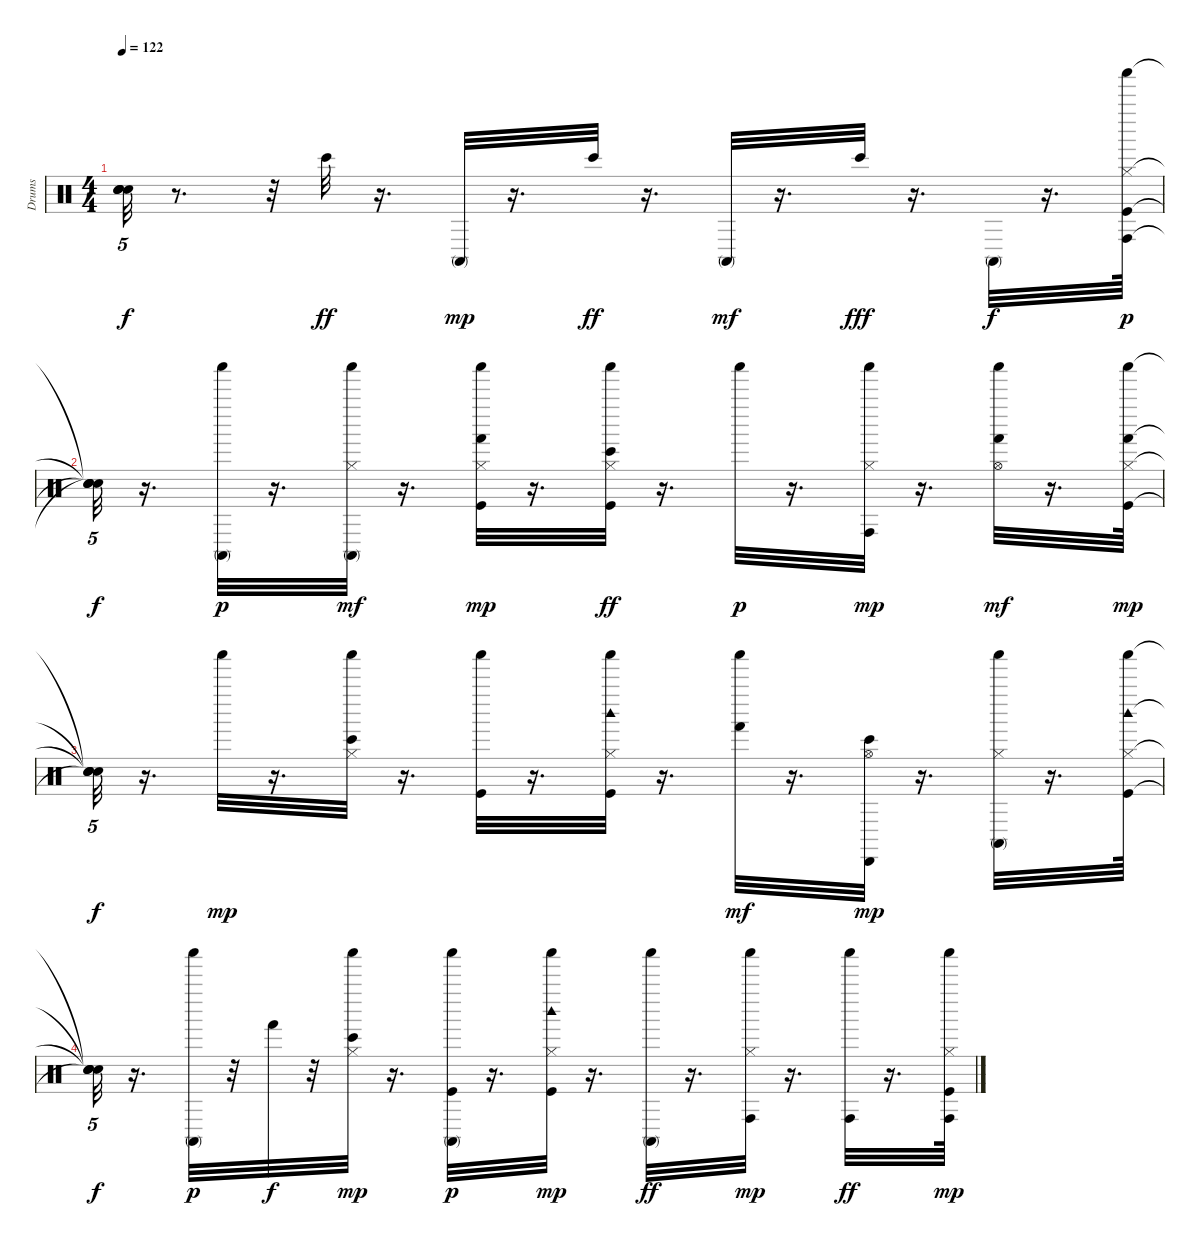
\track ("Drums" "Drums") {instrument percussion}
\staff {score}
\articulation defaults
\ts (4 4)
\tempo 122
\clef neutral
\ks c
("Snare (hit)"{t} "Snare (hit)"{t} "Snare (hit)"{t} "Snare (hit)"{t}).32{tu (5 4) dy f} r.8{d} r.32 "Bongo High (hit)".32{dy ff} r.16{d} "Conga high (mute)".32{dy mp} r.16{d} "Bongo High (hit)".32{dy ff} r.16{d} "Conga high (mute)".32{dy mf} r.16{d} "Bongo High (hit)".32{dy fff} r.16{d} "Conga high (mute)".32{dy f} r.16{d} ("Kick (hit)" "Hi-Hat (closed)" "Conga high (hit)" "Shaker (hit)").64{dy p} |
("Snare (hit)"{t} "Snare (hit)"{t} "Snare (hit)"{t} "Snare (hit)"{t}).32{tu (5 4) dy f} r.16{d} ("Conga high (mute)" "Shaker (hit)").32{dy p} r.16{d} ("Shaker (hit)" "Hi-Hat (closed)" "Conga high (mute)").32{dy mf} r.16{d} ("Kick (hit)" "Hi-Hat (closed)" "Hand (hit)" "Shaker (hit)").32{dy mp} r.16{d} ("Shaker (hit)" "Kick (hit)" "Hi-Hat (closed)" "Bongo High (hit)").32{dy ff} r.16{d} "Shaker (hit)".32{dy p} r.16{d} ("Hi-Hat (closed)" "Conga high (hit)" "Shaker (hit)").32{dy mp} r.16{d} ("Shaker (hit)" "Hi-Hat (open)" "Hand (hit)").32{dy mf} r.16{d} ("Shaker (hit)" "Kick (hit)" "Hi-Hat (closed)" "Hand (hit)").64{dy mp} |
("Snare (hit)"{t} "Snare (hit)"{t} "Snare (hit)"{t} "Snare (hit)"{t}).32{tu (5 4) dy f} r.16{d} "Shaker (hit)".32{dy mp} r.16{d} ("Hi-Hat (closed)" "Bongo High (hit)" "Shaker (hit)").32 r.16{d} ("Shaker (hit)" "Kick (hit)").32 r.16{d} ("Shaker (hit)" "Kick (hit)" "Hi-Hat (closed)" "Woodblock high (hit)").32 r.16{d} ("Shaker (hit)" "Hand (hit)").32{dy mf} r.16{d} ("Hi-Hat (open)" "Bongo High (hit)" "Cabasa (hit)").32{dy mp} r.16{d} ("Hi-Hat (closed)" "Conga high (mute)" "Shaker (hit)").32 r.16{d} ("Kick (hit)" "Hi-Hat (closed)" "Woodblock high (hit)" "Shaker (hit)").64 |
("Snare (hit)"{t} "Snare (hit)"{t} "Snare (hit)"{t} "Snare (hit)"{t}).32{tu (5 4) dy f} r.16{d} ("Conga high (mute)" "Shaker (hit)").32{dy p} r.32 "Hand (hit)".32{dy f} r.32 ("Bongo High (hit)" "Shaker (hit)" "Hi-Hat (closed)").32{dy mp} r.16{d} ("Conga high (mute)" "Shaker (hit)" "Kick (hit)").32{dy p} r.16{d} ("Woodblock high (hit)" "Shaker (hit)" "Kick (hit)" "Hi-Hat (closed)").32{dy mp} r.16{d} ("Shaker (hit)" "Conga high (mute)").32{dy ff} r.16{d} ("Shaker (hit)" "Hi-Hat (closed)" "Conga high (hit)").32{dy mp} r.16{d} ("Shaker (hit)" "Conga high (hit)").32{dy ff} r.16{d} ("Kick (hit)" "Hi-Hat (closed)" "Conga high (hit)" "Shaker (hit)").64{dy mp}
